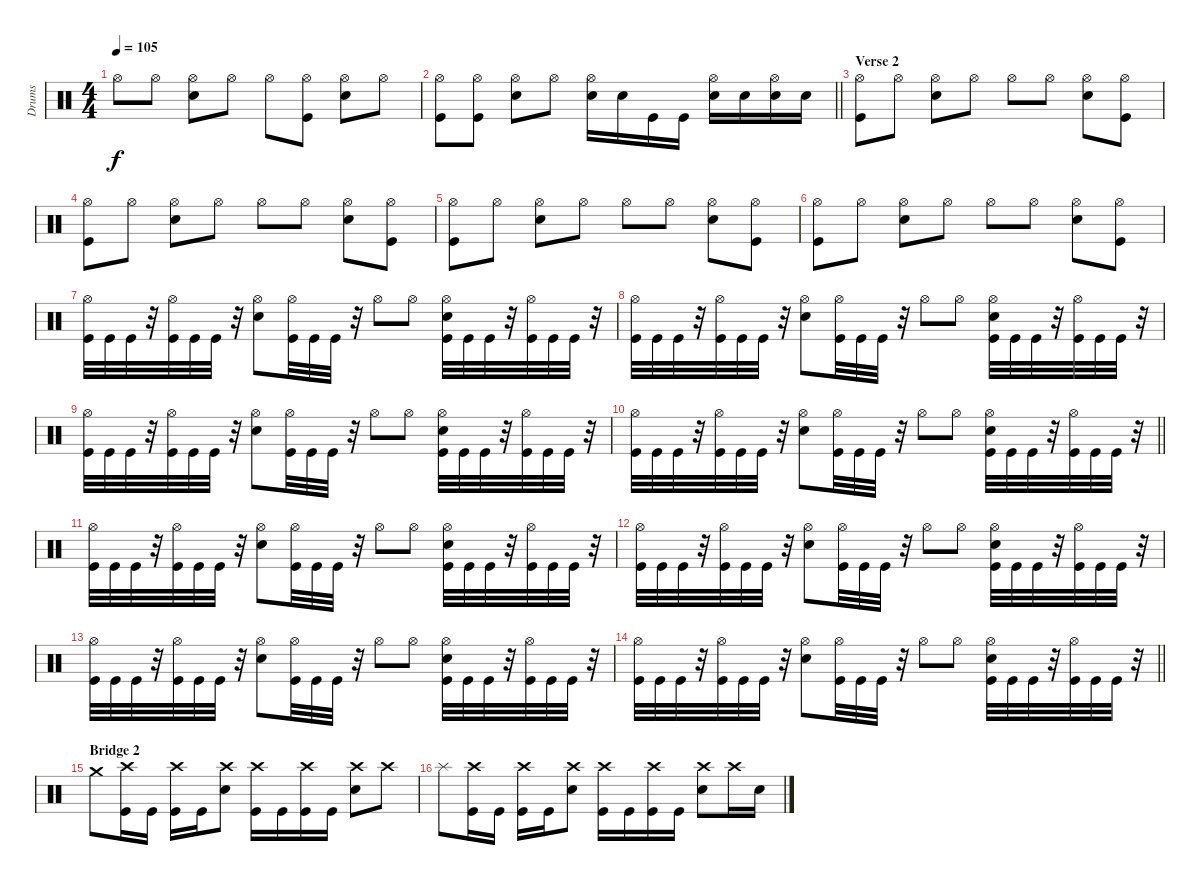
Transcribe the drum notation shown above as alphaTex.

\track ("Drums" "Drums") {instrument percussion}
\staff {score}
\articulation defaults
\ts (4 4)
\tempo 105
\clef neutral
\ks c "Hi-Hat (open)".8{dy f} "Hi-Hat (open)".8
("Snare (hit) 2" "Hi-Hat (open)").8 "Hi-Hat (open)".8 "Hi-Hat (open)".8 ("Kick (hit)" "Hi-Hat (open)").8 ("Snare (hit) 2" "Hi-Hat (open)").8 "Hi-Hat (open)".8 |
\barLineRight lightlight
("Kick (hit)" "Hi-Hat (open)").8 ("Kick (hit)" "Hi-Hat (open)").8 ("Snare (hit) 2" "Hi-Hat (open)").8 "Hi-Hat (open)".8 ("Snare (hit) 2" "Hi-Hat (open)").16 "Snare (hit) 2".16 "Kick (hit)".16 "Kick (hit)".16 ("Snare (hit) 2" "Hi-Hat (open)").16 "Snare (hit) 2".16 ("Snare (hit) 2" "Hi-Hat (open)").16 "Snare (hit) 2".16 |
\section ("" "Verse 2")
("Hi-Hat (open)" "Kick (hit)").8 "Hi-Hat (open)".8 ("Hi-Hat (open)" "Snare (hit) 2").8 "Hi-Hat (open)".8 "Hi-Hat (open)".8 "Hi-Hat (open)".8 ("Hi-Hat (open)" "Snare (hit) 2").8 ("Hi-Hat (open)" "Kick (hit)").8 |
("Hi-Hat (open)" "Kick (hit)").8 "Hi-Hat (open)".8 ("Hi-Hat (open)" "Snare (hit) 2").8 "Hi-Hat (open)".8 "Hi-Hat (open)".8 "Hi-Hat (open)".8 ("Hi-Hat (open)" "Snare (hit) 2").8 ("Hi-Hat (open)" "Kick (hit)").8 |
("Hi-Hat (open)" "Kick (hit)").8 "Hi-Hat (open)".8 ("Hi-Hat (open)" "Snare (hit) 2").8 "Hi-Hat (open)".8 "Hi-Hat (open)".8 "Hi-Hat (open)".8 ("Hi-Hat (open)" "Snare (hit) 2").8 ("Hi-Hat (open)" "Kick (hit)").8 |
("Hi-Hat (open)" "Kick (hit)").8 "Hi-Hat (open)".8 ("Hi-Hat (open)" "Snare (hit) 2").8 "Hi-Hat (open)".8 "Hi-Hat (open)".8 "Hi-Hat (open)".8 ("Hi-Hat (open)" "Snare (hit) 2").8 ("Hi-Hat (open)" "Kick (hit)").8 |
("Kick (hit)" "Hi-Hat (open)").32 "Kick (hit)".32 "Kick (hit)".32 r.32 ("Kick (hit)" "Hi-Hat (open)").32 "Kick (hit)".32 "Kick (hit)".32 r.32 ("Hi-Hat (open)" "Snare (hit) 2").8 ("Hi-Hat (open)" "Kick (hit)").32 "Kick (hit)".32 "Kick (hit)".32 r.32 "Hi-Hat (open)".8 "Hi-Hat (open)".8 ("Hi-Hat (open)" "Snare (hit) 2" "Kick (hit)").32 "Kick (hit)".32 "Kick (hit)".32 r.32 ("Hi-Hat (open)" "Kick (hit)").32 "Kick (hit)".32 "Kick (hit)".32 r.32 |
("Kick (hit)" "Hi-Hat (open)").32 "Kick (hit)".32 "Kick (hit)".32 r.32 ("Kick (hit)" "Hi-Hat (open)").32 "Kick (hit)".32 "Kick (hit)".32 r.32 ("Hi-Hat (open)" "Snare (hit) 2").8 ("Hi-Hat (open)" "Kick (hit)").32 "Kick (hit)".32 "Kick (hit)".32 r.32 "Hi-Hat (open)".8 "Hi-Hat (open)".8 ("Hi-Hat (open)" "Snare (hit) 2" "Kick (hit)").32 "Kick (hit)".32 "Kick (hit)".32 r.32 ("Hi-Hat (open)" "Kick (hit)").32 "Kick (hit)".32 "Kick (hit)".32 r.32 |
("Kick (hit)" "Hi-Hat (open)").32 "Kick (hit)".32 "Kick (hit)".32 r.32 ("Kick (hit)" "Hi-Hat (open)").32 "Kick (hit)".32 "Kick (hit)".32 r.32 ("Hi-Hat (open)" "Snare (hit) 2").8 ("Hi-Hat (open)" "Kick (hit)").32 "Kick (hit)".32 "Kick (hit)".32 r.32 "Hi-Hat (open)".8 "Hi-Hat (open)".8 ("Hi-Hat (open)" "Snare (hit) 2" "Kick (hit)").32 "Kick (hit)".32 "Kick (hit)".32 r.32 ("Hi-Hat (open)" "Kick (hit)").32 "Kick (hit)".32 "Kick (hit)".32 r.32 |
\barLineRight lightlight
("Kick (hit)" "Hi-Hat (open)").32 "Kick (hit)".32 "Kick (hit)".32 r.32 ("Kick (hit)" "Hi-Hat (open)").32 "Kick (hit)".32 "Kick (hit)".32 r.32 ("Hi-Hat (open)" "Snare (hit) 2").8 ("Hi-Hat (open)" "Kick (hit)").32 "Kick (hit)".32 "Kick (hit)".32 r.32 "Hi-Hat (open)".8 "Hi-Hat (open)".8 ("Hi-Hat (open)" "Snare (hit) 2" "Kick (hit)").32 "Kick (hit)".32 "Kick (hit)".32 r.32 ("Hi-Hat (open)" "Kick (hit)").32 "Kick (hit)".32 "Kick (hit)".32 r.32 |
("Kick (hit)" "Hi-Hat (open)").32 "Kick (hit)".32 "Kick (hit)".32 r.32 ("Kick (hit)" "Hi-Hat (open)").32 "Kick (hit)".32 "Kick (hit)".32 r.32 ("Hi-Hat (open)" "Snare (hit) 2").8 ("Hi-Hat (open)" "Kick (hit)").32 "Kick (hit)".32 "Kick (hit)".32 r.32 "Hi-Hat (open)".8 "Hi-Hat (open)".8 ("Hi-Hat (open)" "Snare (hit) 2" "Kick (hit)").32 "Kick (hit)".32 "Kick (hit)".32 r.32 ("Hi-Hat (open)" "Kick (hit)").32 "Kick (hit)".32 "Kick (hit)".32 r.32 |
("Kick (hit)" "Hi-Hat (open)").32 "Kick (hit)".32 "Kick (hit)".32 r.32 ("Kick (hit)" "Hi-Hat (open)").32 "Kick (hit)".32 "Kick (hit)".32 r.32 ("Hi-Hat (open)" "Snare (hit) 2").8 ("Hi-Hat (open)" "Kick (hit)").32 "Kick (hit)".32 "Kick (hit)".32 r.32 "Hi-Hat (open)".8 "Hi-Hat (open)".8 ("Hi-Hat (open)" "Snare (hit) 2" "Kick (hit)").32 "Kick (hit)".32 "Kick (hit)".32 r.32 ("Hi-Hat (open)" "Kick (hit)").32 "Kick (hit)".32 "Kick (hit)".32 r.32 |
("Kick (hit)" "Hi-Hat (open)").32 "Kick (hit)".32 "Kick (hit)".32 r.32 ("Kick (hit)" "Hi-Hat (open)").32 "Kick (hit)".32 "Kick (hit)".32 r.32 ("Hi-Hat (open)" "Snare (hit) 2").8 ("Hi-Hat (open)" "Kick (hit)").32 "Kick (hit)".32 "Kick (hit)".32 r.32 "Hi-Hat (open)".8 "Hi-Hat (open)".8 ("Hi-Hat (open)" "Snare (hit) 2" "Kick (hit)").32 "Kick (hit)".32 "Kick (hit)".32 r.32 ("Hi-Hat (open)" "Kick (hit)").32 "Kick (hit)".32 "Kick (hit)".32 r.32 |
\barLineRight lightlight
("Kick (hit)" "Hi-Hat (open)").32 "Kick (hit)".32 "Kick (hit)".32 r.32 ("Kick (hit)" "Hi-Hat (open)").32 "Kick (hit)".32 "Kick (hit)".32 r.32 ("Hi-Hat (open)" "Snare (hit) 2").8 ("Hi-Hat (open)" "Kick (hit)").32 "Kick (hit)".32 "Kick (hit)".32 r.32 "Hi-Hat (open)".8 "Hi-Hat (open)".8 ("Hi-Hat (open)" "Snare (hit) 2" "Kick (hit)").32 "Kick (hit)".32 "Kick (hit)".32 r.32 ("Hi-Hat (open)" "Kick (hit)").32 "Kick (hit)".32 "Kick (hit)".32 r.32 |
\section ("" "Bridge 2")
"Crash medium (hit)".8 ("Crash high (hit)" "Kick (hit)").16 "Kick (hit)".16 ("Crash high (hit)" "Kick (hit)").16 "Kick (hit)".16 ("Crash high (hit)" "Snare (hit) 2").8 ("Crash high (hit)" "Kick (hit)").16 "Kick (hit)".16 ("Crash high (hit)" "Kick (hit)").16 "Kick (hit)".16 ("Crash high (hit)" "Snare (hit) 2").8 "Crash high (hit)".8 |
"Splash (hit)".8 ("Crash high (hit)" "Kick (hit)").16 "Kick (hit)".16 ("Crash high (hit)" "Kick (hit)").16 "Kick (hit)".16 ("Crash high (hit)" "Snare (hit) 2").8 ("Crash high (hit)" "Kick (hit)").16 "Kick (hit)".16 ("Crash high (hit)" "Kick (hit)").16 "Kick (hit)".16 ("Crash high (hit)" "Snare (hit) 2").8 "Crash high (hit)".16 "Snare (hit) 2".16
